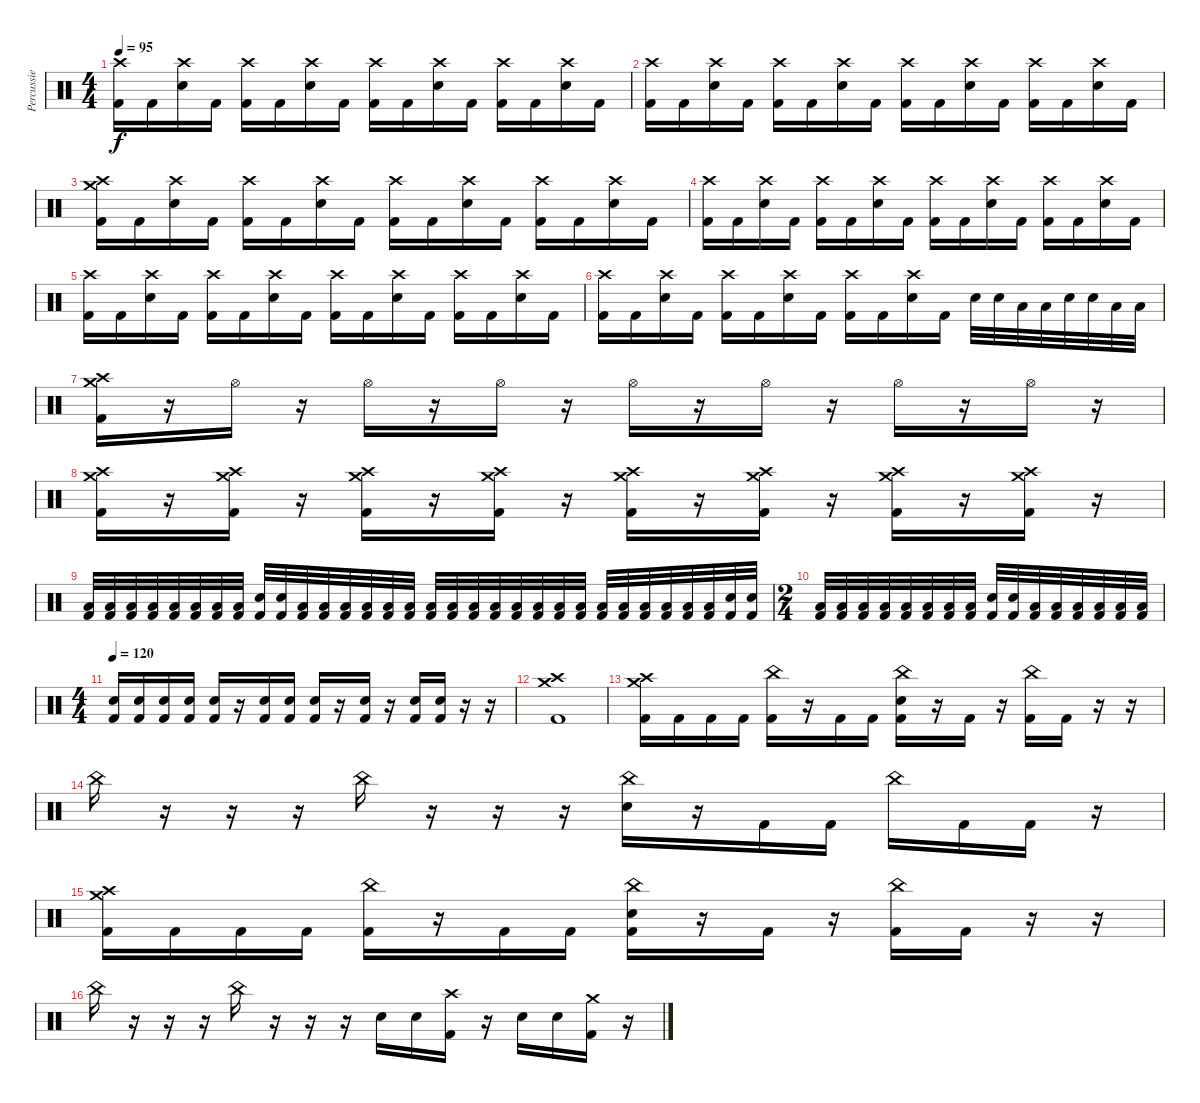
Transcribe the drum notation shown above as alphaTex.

\track ("Percussie" "Percussie") {instrument percussion}
\staff {score}
\articulation defaults
\ts (4 4)
\tempo 95
\clef neutral
\ks c
("Crash high (hit)" "Kick (hit) 2").16{dy f} "Kick (hit) 2".16 ("Crash high (hit)" "Electric Snare (hit)").16 "Kick (hit) 2".16 ("Crash high (hit)" "Kick (hit) 2").16 "Kick (hit) 2".16 ("Crash high (hit)" "Electric Snare (hit)").16 "Kick (hit) 2".16 ("Crash high (hit)" "Kick (hit) 2").16 "Kick (hit) 2".16 ("Crash high (hit)" "Electric Snare (hit)").16 "Kick (hit) 2".16 ("Crash high (hit)" "Kick (hit) 2").16 "Kick (hit) 2".16 ("Crash high (hit)" "Electric Snare (hit)").16 "Kick (hit) 2".16 |
("Crash high (hit)" "Kick (hit) 2").16 "Kick (hit) 2".16 ("Crash high (hit)" "Electric Snare (hit)").16 "Kick (hit) 2".16 ("Crash high (hit)" "Kick (hit) 2").16 "Kick (hit) 2".16 ("Crash high (hit)" "Electric Snare (hit)").16 "Kick (hit) 2".16 ("Crash high (hit)" "Kick (hit) 2").16 "Kick (hit) 2".16 ("Crash high (hit)" "Electric Snare (hit)").16 "Kick (hit) 2".16 ("Crash high (hit)" "Kick (hit) 2").16 "Kick (hit) 2".16 ("Crash high (hit)" "Electric Snare (hit)").16 "Kick (hit) 2".16 |
("Crash medium (hit)" "Crash high (hit)" "Kick (hit) 2").16 "Kick (hit) 2".16 ("Crash high (hit)" "Electric Snare (hit)").16 "Kick (hit) 2".16 ("Crash high (hit)" "Kick (hit) 2").16 "Kick (hit) 2".16 ("Crash high (hit)" "Electric Snare (hit)").16 "Kick (hit) 2".16 ("Crash high (hit)" "Kick (hit) 2").16 "Kick (hit) 2".16 ("Crash high (hit)" "Electric Snare (hit)").16 "Kick (hit) 2".16 ("Crash high (hit)" "Kick (hit) 2").16 "Kick (hit) 2".16 ("Crash high (hit)" "Electric Snare (hit)").16 "Kick (hit) 2".16 |
("Crash high (hit)" "Kick (hit) 2").16 "Kick (hit) 2".16 ("Crash high (hit)" "Electric Snare (hit)").16 "Kick (hit) 2".16 ("Crash high (hit)" "Kick (hit) 2").16 "Kick (hit) 2".16 ("Crash high (hit)" "Electric Snare (hit)").16 "Kick (hit) 2".16 ("Crash high (hit)" "Kick (hit) 2").16 "Kick (hit) 2".16 ("Crash high (hit)" "Electric Snare (hit)").16 "Kick (hit) 2".16 ("Crash high (hit)" "Kick (hit) 2").16 "Kick (hit) 2".16 ("Crash high (hit)" "Electric Snare (hit)").16 "Kick (hit) 2".16 |
("Crash high (hit)" "Kick (hit) 2").16 "Kick (hit) 2".16 ("Crash high (hit)" "Electric Snare (hit)").16 "Kick (hit) 2".16 ("Crash high (hit)" "Kick (hit) 2").16 "Kick (hit) 2".16 ("Crash high (hit)" "Electric Snare (hit)").16 "Kick (hit) 2".16 ("Crash high (hit)" "Kick (hit) 2").16 "Kick (hit) 2".16 ("Crash high (hit)" "Electric Snare (hit)").16 "Kick (hit) 2".16 ("Crash high (hit)" "Kick (hit) 2").16 "Kick (hit) 2".16 ("Crash high (hit)" "Electric Snare (hit)").16 "Kick (hit) 2".16 |
("Crash high (hit)" "Kick (hit) 2").16 "Kick (hit) 2".16 ("Crash high (hit)" "Electric Snare (hit)").16 "Kick (hit) 2".16 ("Crash high (hit)" "Kick (hit) 2").16 "Kick (hit) 2".16 ("Crash high (hit)" "Electric Snare (hit)").16 "Kick (hit) 2".16 ("Crash high (hit)" "Kick (hit) 2").16 "Kick (hit) 2".16 ("Crash high (hit)" "Electric Snare (hit)").16 "Kick (hit) 2".16 "Electric Snare (hit)".32 "Electric Snare (hit)".32 "Low Tom (hit)".32 "Low Tom (hit)".32 "Electric Snare (hit)".32 "Electric Snare (hit)".32 "Low Floor Tom (hit)".32 "Low Floor Tom (hit)".32 |
("Crash medium (hit)" "Crash high (hit)" "Kick (hit) 2").16 r.16 "Hi-Hat (open)".16 r.16 "Hi-Hat (open)".16 r.16 "Hi-Hat (open)".16 r.16 "Hi-Hat (open)".16 r.16 "Hi-Hat (open)".16 r.16 "Hi-Hat (open)".16 r.16 "Hi-Hat (open)".16 r.16 |
("Crash medium (hit)" "Crash high (hit)" "Kick (hit) 2").16 r.16 ("Crash medium (hit)" "Crash high (hit)" "Kick (hit) 2").16 r.16 ("Crash medium (hit)" "Crash high (hit)" "Kick (hit) 2").16 r.16 ("Crash medium (hit)" "Crash high (hit)" "Kick (hit) 2").16 r.16 ("Crash medium (hit)" "Crash high (hit)" "Kick (hit) 2").16 r.16 ("Crash medium (hit)" "Crash high (hit)" "Kick (hit) 2").16 r.16 ("Crash medium (hit)" "Crash high (hit)" "Kick (hit) 2").16 r.16 ("Crash medium (hit)" "Crash high (hit)" "Kick (hit) 2").16 r.16 |
("Low Floor Tom (hit)" "Kick (hit) 2").32 ("Low Tom (hit)" "Kick (hit) 2").32 ("Low Floor Tom (hit)" "Kick (hit) 2").32 ("Low Tom (hit)" "Kick (hit) 2").32 ("Low Floor Tom (hit)" "Kick (hit) 2").32 ("Low Tom (hit)" "Kick (hit) 2").32 ("Low Floor Tom (hit)" "Kick (hit) 2").32 ("Low Tom (hit)" "Kick (hit) 2").32 ("Electric Snare (hit)" "Kick (hit) 2").32 ("Electric Snare (hit)" "Kick (hit) 2").32 ("Low Floor Tom (hit)" "Kick (hit) 2").32 ("Low Tom (hit)" "Kick (hit) 2").32 ("Low Floor Tom (hit)" "Kick (hit) 2").32 ("Low Tom (hit)" "Kick (hit) 2").32 ("Low Floor Tom (hit)" "Kick (hit) 2").32 ("Low Tom (hit)" "Kick (hit) 2").32 ("Low Floor Tom (hit)" "Kick (hit) 2").32 ("Low Tom (hit)" "Kick (hit) 2").32 ("Low Floor Tom (hit)" "Kick (hit) 2").32 ("Low Tom (hit)" "Kick (hit) 2").32 ("Low Floor Tom (hit)" "Kick (hit) 2").32 ("Low Tom (hit)" "Kick (hit) 2").32 ("Low Floor Tom (hit)" "Kick (hit) 2").32 ("Low Tom (hit)" "Kick (hit) 2").32 ("Low Floor Tom (hit)" "Kick (hit) 2").32 ("Low Tom (hit)" "Kick (hit) 2").32 ("Low Floor Tom (hit)" "Kick (hit) 2").32 ("Low Tom (hit)" "Kick (hit) 2").32 ("Low Floor Tom (hit)" "Kick (hit) 2").32 ("Low Tom (hit)" "Kick (hit) 2").32 ("Electric Snare (hit)" "Kick (hit) 2").32 ("Electric Snare (hit)" "Kick (hit) 2").32 |
\ts (2 4)
("Low Floor Tom (hit)" "Kick (hit) 2").32 ("Low Tom (hit)" "Kick (hit) 2").32 ("Low Floor Tom (hit)" "Kick (hit) 2").32 ("Low Tom (hit)" "Kick (hit) 2").32 ("Low Floor Tom (hit)" "Kick (hit) 2").32 ("Low Tom (hit)" "Kick (hit) 2").32 ("Low Floor Tom (hit)" "Kick (hit) 2").32 ("Low Tom (hit)" "Kick (hit) 2").32 ("Electric Snare (hit)" "Kick (hit) 2").32 ("Electric Snare (hit)" "Kick (hit) 2").32 ("Low Floor Tom (hit)" "Kick (hit) 2").32 ("Low Tom (hit)" "Kick (hit) 2").32 ("Low Floor Tom (hit)" "Kick (hit) 2").32 ("Low Tom (hit)" "Kick (hit) 2").32 ("Low Floor Tom (hit)" "Kick (hit) 2").32 ("Low Tom (hit)" "Kick (hit) 2").32 |
\ts (4 4)
\tempo 120
("Electric Snare (hit)" "Kick (hit) 2").16 ("Electric Snare (hit)" "Kick (hit) 2").16 ("Electric Snare (hit)" "Kick (hit) 2").16 ("Electric Snare (hit)" "Kick (hit) 2").16 ("Electric Snare (hit)" "Kick (hit) 2").16 r.16 ("Electric Snare (hit)" "Kick (hit) 2").16 ("Electric Snare (hit)" "Kick (hit) 2").16 ("Electric Snare (hit)" "Kick (hit) 2").16 r.16 ("Electric Snare (hit)" "Kick (hit) 2").16 r.16 ("Electric Snare (hit)" "Kick (hit) 2").16 ("Electric Snare (hit)" "Kick (hit) 2").16 r.16 r.16 |
("Crash medium (hit)" "Crash high (hit)" "Kick (hit) 2").1 |
("Crash medium (hit)" "Crash high (hit)" "Kick (hit) 2").16 "Kick (hit) 2".16 "Kick (hit) 2".16 "Kick (hit) 2".16 ("China (hit)" "Kick (hit) 2").16 r.16 "Kick (hit) 2".16 "Kick (hit) 2".16 ("China (hit)" "Electric Snare (hit)" "Kick (hit) 2").16 r.16 "Kick (hit) 2".16 r.16 ("China (hit)" "Kick (hit) 2").16 "Kick (hit) 2".16 r.16 r.16 |
"China (hit)".16 r.16 r.16 r.16 "China (hit)".16 r.16 r.16 r.16 ("China (hit)" "Electric Snare (hit)").16 r.16 "Kick (hit) 2".16 "Kick (hit) 2".16 "China (hit)".16 "Kick (hit) 2".16 "Kick (hit) 2".16 r.16 |
("Crash medium (hit)" "Crash high (hit)" "Kick (hit) 2").16 "Kick (hit) 2".16 "Kick (hit) 2".16 "Kick (hit) 2".16 ("China (hit)" "Kick (hit) 2").16 r.16 "Kick (hit) 2".16 "Kick (hit) 2".16 ("China (hit)" "Electric Snare (hit)" "Kick (hit) 2").16 r.16 "Kick (hit) 2".16 r.16 ("China (hit)" "Kick (hit) 2").16 "Kick (hit) 2".16 r.16 r.16 |
"China (hit)".16 r.16 r.16 r.16 "China (hit)".16 r.16 r.16 r.16 "Electric Snare (hit)".16 "Electric Snare (hit)".16 ("Crash high (hit)" "Kick (hit) 2").16 r.16 "Electric Snare (hit)".16 "Electric Snare (hit)".16 ("Crash medium (hit)" "Kick (hit) 2").16 r.16
